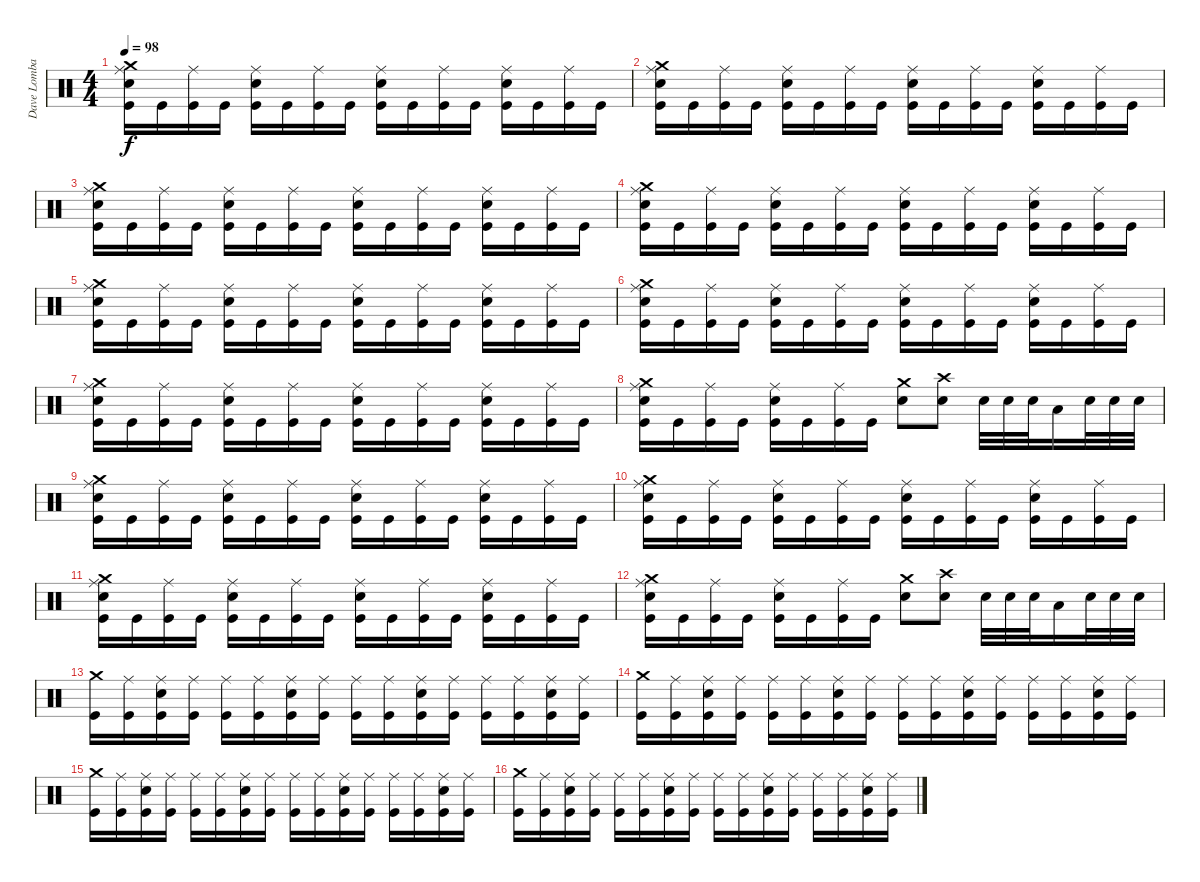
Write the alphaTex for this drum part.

\track ("Dave Lombardo (Drum)" "Dave Lomba") {instrument percussion}
\staff {score}
\articulation defaults
\ts (4 4)
\tempo 98
\clef neutral
\ks c
("Crash medium (hit)" "Snare (hit) 2" "Ride (middle)" "Kick (hit)").16{dy f} "Kick (hit)".16 ("Ride (middle)" "Kick (hit)").16 "Kick (hit)".16 ("Snare (hit) 2" "Ride (middle)" "Kick (hit)").16 "Kick (hit)".16 ("Ride (middle)" "Kick (hit)").16 "Kick (hit)".16 ("Snare (hit) 2" "Ride (middle)" "Kick (hit)").16 "Kick (hit)".16 ("Ride (middle)" "Kick (hit)").16 "Kick (hit)".16 ("Snare (hit) 2" "Ride (middle)" "Kick (hit)").16 "Kick (hit)".16 ("Ride (middle)" "Kick (hit)").16 "Kick (hit)".16 |
("Crash medium (hit)" "Snare (hit) 2" "Ride (middle)" "Kick (hit)").16 "Kick (hit)".16 ("Ride (middle)" "Kick (hit)").16 "Kick (hit)".16 ("Snare (hit) 2" "Ride (middle)" "Kick (hit)").16 "Kick (hit)".16 ("Ride (middle)" "Kick (hit)").16 "Kick (hit)".16 ("Snare (hit) 2" "Ride (middle)" "Kick (hit)").16 "Kick (hit)".16 ("Ride (middle)" "Kick (hit)").16 "Kick (hit)".16 ("Snare (hit) 2" "Ride (middle)" "Kick (hit)").16 "Kick (hit)".16 ("Ride (middle)" "Kick (hit)").16 "Kick (hit)".16 |
("Crash medium (hit)" "Snare (hit) 2" "Ride (middle)" "Kick (hit)").16 "Kick (hit)".16 ("Ride (middle)" "Kick (hit)").16 "Kick (hit)".16 ("Snare (hit) 2" "Ride (middle)" "Kick (hit)").16 "Kick (hit)".16 ("Ride (middle)" "Kick (hit)").16 "Kick (hit)".16 ("Snare (hit) 2" "Ride (middle)" "Kick (hit)").16 "Kick (hit)".16 ("Ride (middle)" "Kick (hit)").16 "Kick (hit)".16 ("Snare (hit) 2" "Ride (middle)" "Kick (hit)").16 "Kick (hit)".16 ("Ride (middle)" "Kick (hit)").16 "Kick (hit)".16 |
("Crash medium (hit)" "Snare (hit) 2" "Ride (middle)" "Kick (hit)").16 "Kick (hit)".16 ("Ride (middle)" "Kick (hit)").16 "Kick (hit)".16 ("Snare (hit) 2" "Ride (middle)" "Kick (hit)").16 "Kick (hit)".16 ("Ride (middle)" "Kick (hit)").16 "Kick (hit)".16 ("Snare (hit) 2" "Ride (middle)" "Kick (hit)").16 "Kick (hit)".16 ("Ride (middle)" "Kick (hit)").16 "Kick (hit)".16 ("Snare (hit) 2" "Ride (middle)" "Kick (hit)").16 "Kick (hit)".16 ("Ride (middle)" "Kick (hit)").16 "Kick (hit)".16 |
("Crash medium (hit)" "Snare (hit) 2" "Ride (middle)" "Kick (hit)").16 "Kick (hit)".16 ("Ride (middle)" "Kick (hit)").16 "Kick (hit)".16 ("Snare (hit) 2" "Ride (middle)" "Kick (hit)").16 "Kick (hit)".16 ("Ride (middle)" "Kick (hit)").16 "Kick (hit)".16 ("Snare (hit) 2" "Ride (middle)" "Kick (hit)").16 "Kick (hit)".16 ("Ride (middle)" "Kick (hit)").16 "Kick (hit)".16 ("Snare (hit) 2" "Ride (middle)" "Kick (hit)").16 "Kick (hit)".16 ("Ride (middle)" "Kick (hit)").16 "Kick (hit)".16 |
("Crash medium (hit)" "Snare (hit) 2" "Ride (middle)" "Kick (hit)").16 "Kick (hit)".16 ("Ride (middle)" "Kick (hit)").16 "Kick (hit)".16 ("Snare (hit) 2" "Ride (middle)" "Kick (hit)").16 "Kick (hit)".16 ("Ride (middle)" "Kick (hit)").16 "Kick (hit)".16 ("Snare (hit) 2" "Ride (middle)" "Kick (hit)").16 "Kick (hit)".16 ("Ride (middle)" "Kick (hit)").16 "Kick (hit)".16 ("Snare (hit) 2" "Ride (middle)" "Kick (hit)").16 "Kick (hit)".16 ("Ride (middle)" "Kick (hit)").16 "Kick (hit)".16 |
("Crash medium (hit)" "Snare (hit) 2" "Ride (middle)" "Kick (hit)").16 "Kick (hit)".16 ("Ride (middle)" "Kick (hit)").16 "Kick (hit)".16 ("Snare (hit) 2" "Ride (middle)" "Kick (hit)").16 "Kick (hit)".16 ("Ride (middle)" "Kick (hit)").16 "Kick (hit)".16 ("Snare (hit) 2" "Ride (middle)" "Kick (hit)").16 "Kick (hit)".16 ("Ride (middle)" "Kick (hit)").16 "Kick (hit)".16 ("Snare (hit) 2" "Ride (middle)" "Kick (hit)").16 "Kick (hit)".16 ("Ride (middle)" "Kick (hit)").16 "Kick (hit)".16 |
("Crash medium (hit)" "Snare (hit) 2" "Ride (middle)" "Kick (hit)").16 "Kick (hit)".16 ("Ride (middle)" "Kick (hit)").16 "Kick (hit)".16 ("Snare (hit) 2" "Ride (middle)" "Kick (hit)").16 "Kick (hit)".16 ("Ride (middle)" "Kick (hit)").16 "Kick (hit)".16 ("Snare (hit) 2" "Crash medium (hit)").8 ("Crash high (hit)" "Snare (hit) 2").8 "Snare (hit) 2".32 "Snare (hit) 2".32 "Snare (hit) 2".32 "Low Tom (hit)".16 "Snare (hit) 2".32 "Snare (hit) 2".32 "Snare (hit) 2".32 |
("Crash medium (hit)" "Snare (hit) 2" "Ride (middle)" "Kick (hit)").16 "Kick (hit)".16 ("Ride (middle)" "Kick (hit)").16 "Kick (hit)".16 ("Snare (hit) 2" "Ride (middle)" "Kick (hit)").16 "Kick (hit)".16 ("Ride (middle)" "Kick (hit)").16 "Kick (hit)".16 ("Snare (hit) 2" "Ride (middle)" "Kick (hit)").16 "Kick (hit)".16 ("Ride (middle)" "Kick (hit)").16 "Kick (hit)".16 ("Snare (hit) 2" "Ride (middle)" "Kick (hit)").16 "Kick (hit)".16 ("Ride (middle)" "Kick (hit)").16 "Kick (hit)".16 |
("Crash medium (hit)" "Snare (hit) 2" "Ride (middle)" "Kick (hit)").16 "Kick (hit)".16 ("Ride (middle)" "Kick (hit)").16 "Kick (hit)".16 ("Snare (hit) 2" "Ride (middle)" "Kick (hit)").16 "Kick (hit)".16 ("Ride (middle)" "Kick (hit)").16 "Kick (hit)".16 ("Snare (hit) 2" "Ride (middle)" "Kick (hit)").16 "Kick (hit)".16 ("Ride (middle)" "Kick (hit)").16 "Kick (hit)".16 ("Snare (hit) 2" "Ride (middle)" "Kick (hit)").16 "Kick (hit)".16 ("Ride (middle)" "Kick (hit)").16 "Kick (hit)".16 |
("Crash medium (hit)" "Snare (hit) 2" "Ride (middle)" "Kick (hit)").16 "Kick (hit)".16 ("Ride (middle)" "Kick (hit)").16 "Kick (hit)".16 ("Snare (hit) 2" "Ride (middle)" "Kick (hit)").16 "Kick (hit)".16 ("Ride (middle)" "Kick (hit)").16 "Kick (hit)".16 ("Snare (hit) 2" "Ride (middle)" "Kick (hit)").16 "Kick (hit)".16 ("Ride (middle)" "Kick (hit)").16 "Kick (hit)".16 ("Snare (hit) 2" "Ride (middle)" "Kick (hit)").16 "Kick (hit)".16 ("Ride (middle)" "Kick (hit)").16 "Kick (hit)".16 |
("Crash medium (hit)" "Snare (hit) 2" "Ride (middle)" "Kick (hit)").16 "Kick (hit)".16 ("Ride (middle)" "Kick (hit)").16 "Kick (hit)".16 ("Snare (hit) 2" "Ride (middle)" "Kick (hit)").16 "Kick (hit)".16 ("Ride (middle)" "Kick (hit)").16 "Kick (hit)".16 ("Snare (hit) 2" "Crash medium (hit)").8 ("Crash high (hit)" "Snare (hit) 2").8 "Snare (hit) 2".32 "Snare (hit) 2".32 "Snare (hit) 2".32 "Low Tom (hit)".16 "Snare (hit) 2".32 "Snare (hit) 2".32 "Snare (hit) 2".32 |
("Crash medium (hit)" "Kick (hit)").16 ("Ride (middle)" "Kick (hit)").16 ("Snare (hit) 2" "Ride (middle)" "Kick (hit)").16 ("Ride (middle)" "Kick (hit)").16 ("Ride (middle)" "Kick (hit)").16 ("Ride (middle)" "Kick (hit)").16 ("Snare (hit) 2" "Ride (middle)" "Kick (hit)").16 ("Ride (middle)" "Kick (hit)").16 ("Ride (middle)" "Kick (hit)").16 ("Ride (middle)" "Kick (hit)").16 ("Snare (hit) 2" "Ride (middle)" "Kick (hit)").16 ("Ride (middle)" "Kick (hit)").16 ("Ride (middle)" "Kick (hit)").16 ("Ride (middle)" "Kick (hit)").16 ("Snare (hit) 2" "Ride (middle)" "Kick (hit)").16 ("Ride (middle)" "Kick (hit)").16 |
("Crash medium (hit)" "Kick (hit)").16 ("Ride (middle)" "Kick (hit)").16 ("Snare (hit) 2" "Ride (middle)" "Kick (hit)").16 ("Ride (middle)" "Kick (hit)").16 ("Ride (middle)" "Kick (hit)").16 ("Ride (middle)" "Kick (hit)").16 ("Snare (hit) 2" "Ride (middle)" "Kick (hit)").16 ("Ride (middle)" "Kick (hit)").16 ("Ride (middle)" "Kick (hit)").16 ("Ride (middle)" "Kick (hit)").16 ("Snare (hit) 2" "Ride (middle)" "Kick (hit)").16 ("Ride (middle)" "Kick (hit)").16 ("Ride (middle)" "Kick (hit)").16 ("Ride (middle)" "Kick (hit)").16 ("Snare (hit) 2" "Ride (middle)" "Kick (hit)").16 ("Ride (middle)" "Kick (hit)").16 |
("Crash medium (hit)" "Kick (hit)").16 ("Ride (middle)" "Kick (hit)").16 ("Snare (hit) 2" "Ride (middle)" "Kick (hit)").16 ("Ride (middle)" "Kick (hit)").16 ("Ride (middle)" "Kick (hit)").16 ("Ride (middle)" "Kick (hit)").16 ("Snare (hit) 2" "Ride (middle)" "Kick (hit)").16 ("Ride (middle)" "Kick (hit)").16 ("Ride (middle)" "Kick (hit)").16 ("Ride (middle)" "Kick (hit)").16 ("Snare (hit) 2" "Ride (middle)" "Kick (hit)").16 ("Ride (middle)" "Kick (hit)").16 ("Ride (middle)" "Kick (hit)").16 ("Ride (middle)" "Kick (hit)").16 ("Snare (hit) 2" "Ride (middle)" "Kick (hit)").16 ("Ride (middle)" "Kick (hit)").16 |
("Crash medium (hit)" "Kick (hit)").16 ("Ride (middle)" "Kick (hit)").16 ("Snare (hit) 2" "Ride (middle)" "Kick (hit)").16 ("Ride (middle)" "Kick (hit)").16 ("Ride (middle)" "Kick (hit)").16 ("Ride (middle)" "Kick (hit)").16 ("Snare (hit) 2" "Ride (middle)" "Kick (hit)").16 ("Ride (middle)" "Kick (hit)").16 ("Ride (middle)" "Kick (hit)").16 ("Ride (middle)" "Kick (hit)").16 ("Snare (hit) 2" "Ride (middle)" "Kick (hit)").16 ("Ride (middle)" "Kick (hit)").16 ("Ride (middle)" "Kick (hit)").16 ("Ride (middle)" "Kick (hit)").16 ("Snare (hit) 2" "Ride (middle)" "Kick (hit)").16 ("Ride (middle)" "Kick (hit)").16
